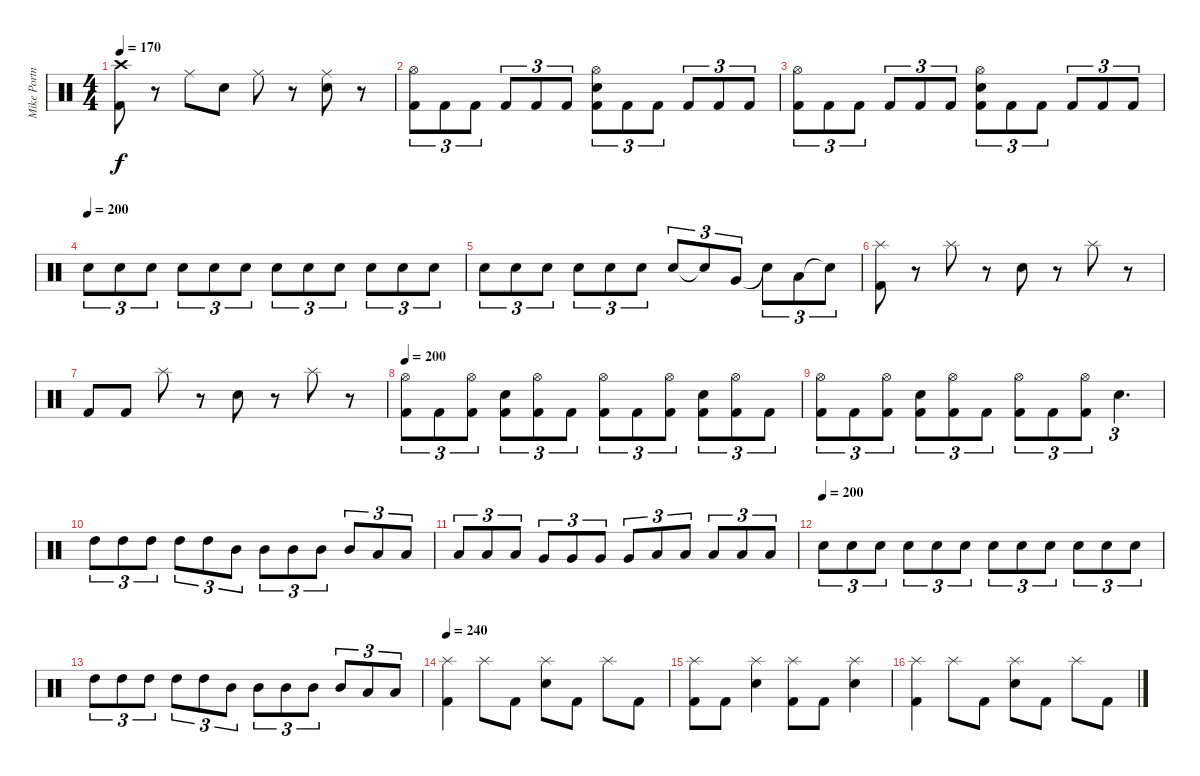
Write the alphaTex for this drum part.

\track ("Mike Portnoy" "Mike Portn") {instrument percussion}
\staff {score}
\articulation defaults
\ts (4 4)
\tempo 170
\clef neutral
\ks c
("Kick (hit) 2" "Crash high (hit)").8{dy f} r.8 "Ride (middle)".8 "Electric Snare (hit)".8 "Ride (middle)".8 r.8 ("Electric Snare (hit)" "Ride (middle)").8 r.8 |
("Kick (hit) 2" "Hi-Hat (open)").8{tu (3 2)} "Kick (hit) 2".8{tu (3 2)} "Kick (hit) 2".8{tu (3 2)} "Kick (hit) 2".8{tu (3 2)} "Kick (hit) 2".8{tu (3 2)} "Kick (hit) 2".8{tu (3 2)} ("Kick (hit) 2" "Electric Snare (hit)" "Hi-Hat (open)").8{tu (3 2)} "Kick (hit) 2".8{tu (3 2)} "Kick (hit) 2".8{tu (3 2)} "Kick (hit) 2".8{tu (3 2)} "Kick (hit) 2".8{tu (3 2)} "Kick (hit) 2".8{tu (3 2)} |
("Kick (hit) 2" "Hi-Hat (open)").8{tu (3 2)} "Kick (hit) 2".8{tu (3 2)} "Kick (hit) 2".8{tu (3 2)} "Kick (hit) 2".8{tu (3 2)} "Kick (hit) 2".8{tu (3 2)} "Kick (hit) 2".8{tu (3 2)} ("Kick (hit) 2" "Electric Snare (hit)" "Hi-Hat (open)").8{tu (3 2)} "Kick (hit) 2".8{tu (3 2)} "Kick (hit) 2".8{tu (3 2)} "Kick (hit) 2".8{tu (3 2)} "Kick (hit) 2".8{tu (3 2)} "Kick (hit) 2".8{tu (3 2)} |
\tempo (200)
"Electric Snare (hit)".8{tu (3 2)} "Electric Snare (hit)".8{tu (3 2)} "Electric Snare (hit)".8{tu (3 2)} "Electric Snare (hit)".8{tu (3 2)} "Electric Snare (hit)".8{tu (3 2)} "Electric Snare (hit)".8{tu (3 2)} "Electric Snare (hit)".8{tu (3 2)} "Electric Snare (hit)".8{tu (3 2)} "Electric Snare (hit)".8{tu (3 2)} "Electric Snare (hit)".8{tu (3 2)} "Electric Snare (hit)".8{tu (3 2)} "Electric Snare (hit)".8{tu (3 2)} |
"Electric Snare (hit)".8{tu (3 2)} "Electric Snare (hit)".8{tu (3 2)} "Electric Snare (hit)".8{tu (3 2)} "Electric Snare (hit)".8{tu (3 2)} "Electric Snare (hit)".8{tu (3 2)} "Electric Snare (hit)".8{tu (3 2)} "Electric Snare (hit)".8{tu (3 2)} "Electric Snare (hit)"{t}.8{tu (3 2)} "Very Low Tom (hit)".8{tu (3 2)} "Electric Snare (hit)"{t}.8{tu (3 2)} "Low Floor Tom (hit)".8{tu (3 2)} "Electric Snare (hit)"{t}.8{tu (3 2)} |
("Kick (hit) 2" "Splash (hit)").8 r.8 "Splash (hit)".8 r.8 "Electric Snare (hit)".8 r.8 "Splash (hit)".8 r.8 |
"Kick (hit) 2".8 "Kick (hit) 2".8 "Splash (hit)".8 r.8 "Electric Snare (hit)".8 r.8 "Splash (hit)".8 r.8 |
\tempo 200
("Kick (hit) 2" "Hi-Hat (open)").8{tu (3 2)} "Kick (hit) 2".8{tu (3 2)} ("Kick (hit) 2" "Hi-Hat (open)").8{tu (3 2)} ("Kick (hit) 2" "Electric Snare (hit)").8{tu (3 2)} ("Kick (hit) 2" "Hi-Hat (open)").8{tu (3 2)} "Kick (hit) 2".8{tu (3 2)} ("Kick (hit) 2" "Hi-Hat (open)").8{tu (3 2)} "Kick (hit) 2".8{tu (3 2)} ("Kick (hit) 2" "Hi-Hat (open)").8{tu (3 2)} ("Kick (hit) 2" "Electric Snare (hit)").8{tu (3 2)} ("Kick (hit) 2" "Hi-Hat (open)").8{tu (3 2)} "Kick (hit) 2".8{tu (3 2)} |
("Kick (hit) 2" "Hi-Hat (open)").8{tu (3 2)} "Kick (hit) 2".8{tu (3 2)} ("Kick (hit) 2" "Hi-Hat (open)").8{tu (3 2)} ("Kick (hit) 2" "Electric Snare (hit)").8{tu (3 2)} ("Kick (hit) 2" "Hi-Hat (open)").8{tu (3 2)} "Kick (hit) 2".8{tu (3 2)} ("Kick (hit) 2" "Hi-Hat (open)").8{tu (3 2)} "Kick (hit) 2".8{tu (3 2)} ("Kick (hit) 2" "Hi-Hat (open)").8{tu (3 2)} "Electric Snare (hit)".4{d tu (3 2)} |
"High Tom (hit)".8{tu (3 2)} "High Tom (hit)".8{tu (3 2)} "High Tom (hit)".8{tu (3 2)} "High Tom (hit)".8{tu (3 2)} "High Tom (hit)".8{tu (3 2)} "Mid Tom (hit)".8{tu (3 2)} "Mid Tom (hit)".8{tu (3 2)} "Mid Tom (hit)".8{tu (3 2)} "Mid Tom (hit)".8{tu (3 2)} "Mid Tom (hit)".8{tu (3 2)} "Low Tom (hit)".8{tu (3 2)} "Low Tom (hit)".8{tu (3 2)} |
"Low Tom (hit)".8{tu (3 2)} "Low Tom (hit)".8{tu (3 2)} "Low Tom (hit)".8{tu (3 2)} "Very Low Tom (hit)".8{tu (3 2)} "Very Low Tom (hit)".8{tu (3 2)} "Very Low Tom (hit)".8{tu (3 2)} "Very Low Tom (hit)".8{tu (3 2)} "Low Floor Tom (hit)".8{tu (3 2)} "Low Floor Tom (hit)".8{tu (3 2)} "Low Floor Tom (hit)".8{tu (3 2)} "Low Floor Tom (hit)".8{tu (3 2)} "Low Floor Tom (hit)".8{tu (3 2)} |
\tempo (200)
"Electric Snare (hit)".8{tu (3 2)} "Electric Snare (hit)".8{tu (3 2)} "Electric Snare (hit)".8{tu (3 2)} "Electric Snare (hit)".8{tu (3 2)} "Electric Snare (hit)".8{tu (3 2)} "Electric Snare (hit)".8{tu (3 2)} "Electric Snare (hit)".8{tu (3 2)} "Electric Snare (hit)".8{tu (3 2)} "Electric Snare (hit)".8{tu (3 2)} "Electric Snare (hit)".8{tu (3 2)} "Electric Snare (hit)".8{tu (3 2)} "Electric Snare (hit)".8{tu (3 2)} |
"High Tom (hit)".8{tu (3 2)} "High Tom (hit)".8{tu (3 2)} "High Tom (hit)".8{tu (3 2)} "High Tom (hit)".8{tu (3 2)} "High Tom (hit)".8{tu (3 2)} "Mid Tom (hit)".8{tu (3 2)} "Mid Tom (hit)".8{tu (3 2)} "Mid Tom (hit)".8{tu (3 2)} "Mid Tom (hit)".8{tu (3 2)} "Mid Tom (hit)".8{tu (3 2)} "Low Tom (hit)".8{tu (3 2)} "Low Tom (hit)".8{tu (3 2)} |
\tempo 240
("Kick (hit) 2" "Splash (hit)").4 "Splash (hit)".8 "Kick (hit) 2".8 ("Electric Snare (hit)" "Splash (hit)").8 "Kick (hit) 2".8 "Splash (hit)".8 "Kick (hit) 2".8 |
("Kick (hit) 2" "Splash (hit)").8 "Kick (hit) 2".8 ("Electric Snare (hit)" "Splash (hit)").4 ("Kick (hit) 2" "Splash (hit)").8 "Kick (hit) 2".8 ("Electric Snare (hit)" "Splash (hit)").4 |
("Kick (hit) 2" "Splash (hit)").4 "Splash (hit)".8 "Kick (hit) 2".8 ("Electric Snare (hit)" "Splash (hit)").8 "Kick (hit) 2".8 "Splash (hit)".8 "Kick (hit) 2".8
